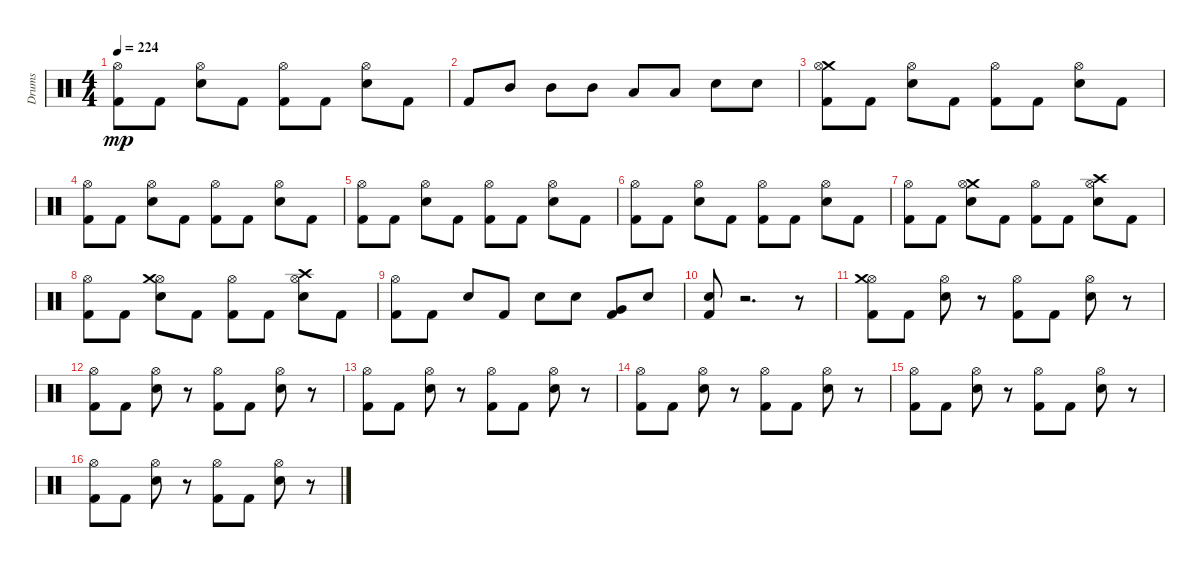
\track ("Drums" "Drums") {instrument percussion}
\staff {score}
\articulation defaults
\ts (4 4)
\tempo 224
\clef neutral
\ks c
("Kick (hit) 2" "Hi-Hat (open)").8{dy mp} "Kick (hit) 2".8 ("Hi-Hat (open)" "Electric Snare (hit)").8 "Kick (hit) 2".8 ("Kick (hit) 2" "Hi-Hat (open)").8 "Kick (hit) 2".8 ("Hi-Hat (open)" "Electric Snare (hit)").8 "Kick (hit) 2".8 |
"Kick (hit) 2".8 "Mid Tom (hit)".8 "Mid Tom (hit)".8 "Mid Tom (hit)".8 "Low Tom (hit)".8 "Low Tom (hit)".8 "Electric Snare (hit)".8 "Electric Snare (hit)".8 |
("Crash medium (hit)" "Hi-Hat (open)" "Kick (hit) 2").8 "Kick (hit) 2".8 ("Electric Snare (hit)" "Hi-Hat (open)").8 "Kick (hit) 2".8 ("Kick (hit) 2" "Hi-Hat (open)").8 "Kick (hit) 2".8 ("Electric Snare (hit)" "Hi-Hat (open)").8 "Kick (hit) 2".8 |
("Kick (hit) 2" "Hi-Hat (open)").8 "Kick (hit) 2".8 ("Hi-Hat (open)" "Electric Snare (hit)").8 "Kick (hit) 2".8 ("Kick (hit) 2" "Hi-Hat (open)").8 "Kick (hit) 2".8 ("Electric Snare (hit)" "Hi-Hat (open)").8 "Kick (hit) 2".8 |
("Hi-Hat (open)" "Kick (hit) 2").8 "Kick (hit) 2".8 ("Electric Snare (hit)" "Hi-Hat (open)").8 "Kick (hit) 2".8 ("Kick (hit) 2" "Hi-Hat (open)").8 "Kick (hit) 2".8 ("Hi-Hat (open)" "Electric Snare (hit)").8 "Kick (hit) 2".8 |
("Hi-Hat (open)" "Kick (hit) 2").8 "Kick (hit) 2".8 ("Hi-Hat (open)" "Electric Snare (hit)").8 "Kick (hit) 2".8 ("Kick (hit) 2" "Hi-Hat (open)").8 "Kick (hit) 2".8 ("Hi-Hat (open)" "Electric Snare (hit)").8 "Kick (hit) 2".8 |
("Kick (hit) 2" "Hi-Hat (open)").8 "Kick (hit) 2".8 ("Electric Snare (hit)" "Crash medium (hit)" "Hi-Hat (open)").8 "Kick (hit) 2".8 ("Kick (hit) 2" "Hi-Hat (open)").8 "Kick (hit) 2".8 ("Crash high (hit)" "Electric Snare (hit)" "Hi-Hat (open)").8 "Kick (hit) 2".8 |
("Hi-Hat (open)" "Kick (hit) 2").8 "Kick (hit) 2".8 ("Hi-Hat (open)" "Electric Snare (hit)" "Crash medium (hit)").8 "Kick (hit) 2".8 ("Hi-Hat (open)" "Kick (hit) 2").8 "Kick (hit) 2".8 ("Hi-Hat (open)" "Crash high (hit)" "Electric Snare (hit)").8 "Kick (hit) 2".8 |
("Kick (hit) 2" "Hi-Hat (open)").8 "Kick (hit) 2".8 "Electric Snare (hit)".8 "Kick (hit) 2".8 "Electric Snare (hit)".8 "Electric Snare (hit)".8 ("Very Low Tom (hit)" "Kick (hit) 2").8 "Electric Snare (hit)".8 |
("Electric Snare (hit)" "Kick (hit) 2").8 r.2{d} r.8 |
("Hi-Hat (open)" "Crash medium (hit)" "Kick (hit) 2").8 "Kick (hit) 2".8 ("Hi-Hat (open)" "Electric Snare (hit)").8 r.8 ("Hi-Hat (open)" "Kick (hit) 2").8 "Kick (hit) 2".8 ("Hi-Hat (open)" "Electric Snare (hit)").8 r.8 |
("Hi-Hat (open)" "Kick (hit) 2").8 "Kick (hit) 2".8 ("Electric Snare (hit)" "Hi-Hat (open)").8 r.8 ("Hi-Hat (open)" "Kick (hit) 2").8 "Kick (hit) 2".8 ("Electric Snare (hit)" "Hi-Hat (open)").8 r.8 |
("Kick (hit) 2" "Hi-Hat (open)").8 "Kick (hit) 2".8 ("Hi-Hat (open)" "Electric Snare (hit)").8 r.8 ("Kick (hit) 2" "Hi-Hat (open)").8 "Kick (hit) 2".8 ("Hi-Hat (open)" "Electric Snare (hit)").8 r.8 |
("Kick (hit) 2" "Hi-Hat (open)").8 "Kick (hit) 2".8 ("Electric Snare (hit)" "Hi-Hat (open)").8 r.8 ("Kick (hit) 2" "Hi-Hat (open)").8 "Kick (hit) 2".8 ("Hi-Hat (open)" "Electric Snare (hit)").8 r.8 |
("Hi-Hat (open)" "Kick (hit) 2").8 "Kick (hit) 2".8 ("Hi-Hat (open)" "Electric Snare (hit)").8 r.8 ("Kick (hit) 2" "Hi-Hat (open)").8 "Kick (hit) 2".8 ("Hi-Hat (open)" "Electric Snare (hit)").8 r.8 |
("Kick (hit) 2" "Hi-Hat (open)").8 "Kick (hit) 2".8 ("Electric Snare (hit)" "Hi-Hat (open)").8 r.8 ("Hi-Hat (open)" "Kick (hit) 2").8 "Kick (hit) 2".8 ("Electric Snare (hit)" "Hi-Hat (open)").8 r.8
